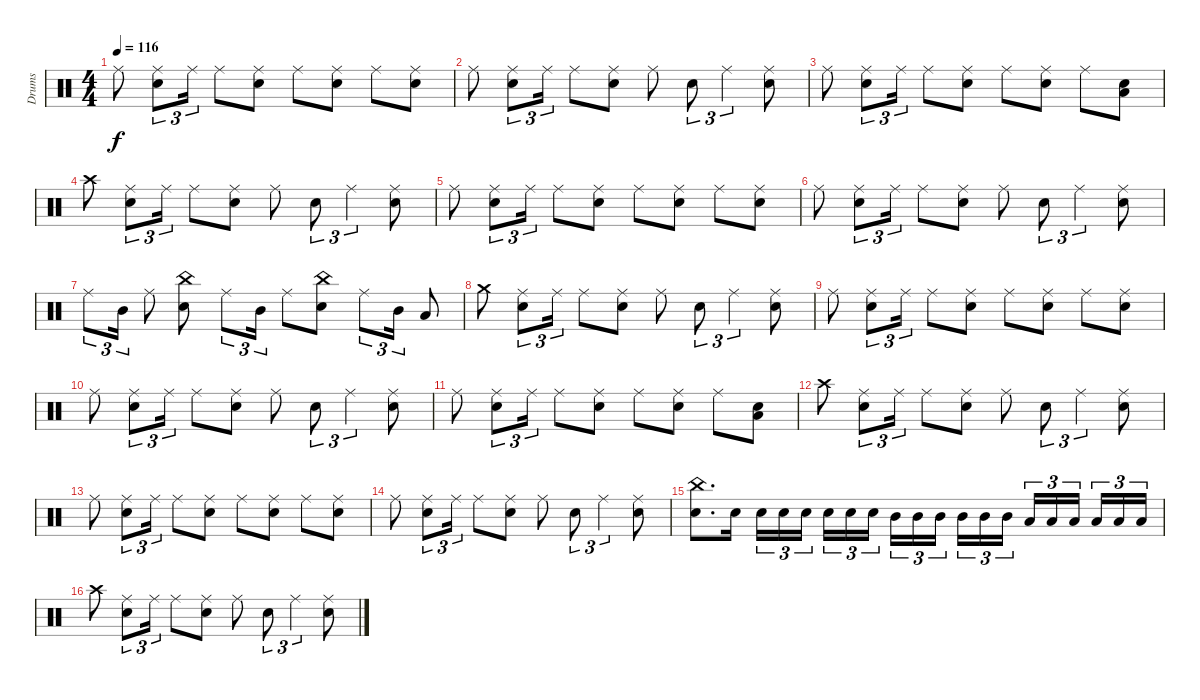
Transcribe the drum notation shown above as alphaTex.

\track ("Drums" "Drums") {instrument percussion}
\staff {score}
\articulation defaults
\ts (4 4)
\tempo 116
\clef neutral
\ks c "Ride (middle)".8{dy f}
("Ride (middle)" "Snare (hit) 2").8{tu (3 2)} "Ride (middle)".16{tu (3 2)} "Ride (middle)".8 ("Ride (middle)" "Snare (hit) 2").8 "Ride (middle)".8 ("Ride (middle)" "Snare (hit) 2").8 "Ride (middle)".8 ("Ride (middle)" "Snare (hit) 2").8 |
"Ride (middle)".8 ("Ride (middle)" "Snare (hit) 2").8{tu (3 2)} "Ride (middle)".16{tu (3 2)} "Ride (middle)".8 ("Ride (middle)" "Snare (hit) 2").8 "Ride (middle)".8 "Snare (hit) 2".8{tu (3 2)} "Ride (middle)".4{tu (3 2)} ("Ride (middle)" "Snare (hit) 2").8 |
"Ride (middle)".8 ("Ride (middle)" "Snare (hit) 2").8{tu (3 2)} "Ride (middle)".16{tu (3 2)} "Ride (middle)".8 ("Ride (middle)" "Snare (hit) 2").8 "Ride (middle)".8 ("Ride (middle)" "Snare (hit) 2").8 "Ride (middle)".8 ("Low Tom (hit)" "Snare (hit) 2").8 |
"Crash high (hit)".8 ("Ride (middle)" "Snare (hit) 2").8{tu (3 2)} "Ride (middle)".16{tu (3 2)} "Ride (middle)".8 ("Ride (middle)" "Snare (hit) 2").8 "Ride (middle)".8 "Snare (hit) 2".8{tu (3 2)} "Ride (middle)".4{tu (3 2)} ("Ride (middle)" "Snare (hit) 2").8 |
"Ride (middle)".8 ("Ride (middle)" "Snare (hit) 2").8{tu (3 2)} "Ride (middle)".16{tu (3 2)} "Ride (middle)".8 ("Ride (middle)" "Snare (hit) 2").8 "Ride (middle)".8 ("Ride (middle)" "Snare (hit) 2").8 "Ride (middle)".8 ("Ride (middle)" "Snare (hit) 2").8 |
"Ride (middle)".8 ("Ride (middle)" "Snare (hit) 2").8{tu (3 2)} "Ride (middle)".16{tu (3 2)} "Ride (middle)".8 ("Ride (middle)" "Snare (hit) 2").8 "Ride (middle)".8 "Snare (hit) 2".8{tu (3 2)} "Ride (middle)".4{tu (3 2)} ("Ride (middle)" "Snare (hit) 2").8 |
"Ride (middle)".8{tu (3 2)} "Mid Tom (hit)".16{tu (3 2)} "Ride (middle)".8 ("China (hit)" "Snare (hit) 2").8 "Ride (middle)".8{tu (3 2)} "Mid Tom (hit)".16{tu (3 2)} "Ride (middle)".8 ("China (hit)" "Snare (hit) 2").8 "Ride (middle)".8{tu (3 2)} "Mid Tom (hit)".16{tu (3 2)} "Low Tom (hit)".8 |
"Crash medium (hit)".8 ("Ride (middle)" "Snare (hit) 2").8{tu (3 2)} "Ride (middle)".16{tu (3 2)} "Ride (middle)".8 ("Ride (middle)" "Snare (hit) 2").8 "Ride (middle)".8 "Snare (hit) 2".8{tu (3 2)} "Ride (middle)".4{tu (3 2)} ("Ride (middle)" "Snare (hit) 2").8 |
"Ride (middle)".8 ("Ride (middle)" "Snare (hit) 2").8{tu (3 2)} "Ride (middle)".16{tu (3 2)} "Ride (middle)".8 ("Ride (middle)" "Snare (hit) 2").8 "Ride (middle)".8 ("Ride (middle)" "Snare (hit) 2").8 "Ride (middle)".8 ("Ride (middle)" "Snare (hit) 2").8 |
"Ride (middle)".8 ("Ride (middle)" "Snare (hit) 2").8{tu (3 2)} "Ride (middle)".16{tu (3 2)} "Ride (middle)".8 ("Ride (middle)" "Snare (hit) 2").8 "Ride (middle)".8 "Snare (hit) 2".8{tu (3 2)} "Ride (middle)".4{tu (3 2)} ("Ride (middle)" "Snare (hit) 2").8 |
"Ride (middle)".8 ("Ride (middle)" "Snare (hit) 2").8{tu (3 2)} "Ride (middle)".16{tu (3 2)} "Ride (middle)".8 ("Ride (middle)" "Snare (hit) 2").8 "Ride (middle)".8 ("Ride (middle)" "Snare (hit) 2").8 "Ride (middle)".8 ("Low Tom (hit)" "Snare (hit) 2").8 |
"Crash high (hit)".8 ("Ride (middle)" "Snare (hit) 2").8{tu (3 2)} "Ride (middle)".16{tu (3 2)} "Ride (middle)".8 ("Ride (middle)" "Snare (hit) 2").8 "Ride (middle)".8 "Snare (hit) 2".8{tu (3 2)} "Ride (middle)".4{tu (3 2)} ("Ride (middle)" "Snare (hit) 2").8 |
"Ride (middle)".8 ("Ride (middle)" "Snare (hit) 2").8{tu (3 2)} "Ride (middle)".16{tu (3 2)} "Ride (middle)".8 ("Ride (middle)" "Snare (hit) 2").8 "Ride (middle)".8 ("Ride (middle)" "Snare (hit) 2").8 "Ride (middle)".8 ("Ride (middle)" "Snare (hit) 2").8 |
"Ride (middle)".8 ("Ride (middle)" "Snare (hit) 2").8{tu (3 2)} "Ride (middle)".16{tu (3 2)} "Ride (middle)".8 ("Ride (middle)" "Snare (hit) 2").8 "Ride (middle)".8 "Snare (hit) 2".8{tu (3 2)} "Ride (middle)".4{tu (3 2)} ("Ride (middle)" "Snare (hit) 2").8 |
("China (hit)" "Snare (hit) 2").8{d} "Snare (hit) 2".16 "Snare (hit) 2".16{tu (3 2)} "Snare (hit) 2".16{tu (3 2)} "Snare (hit) 2".16{tu (3 2)} "Snare (hit) 2".16{tu (3 2)} "Snare (hit) 2".16{tu (3 2)} "Snare (hit) 2".16{tu (3 2)} "Mid Tom (hit)".16{tu (3 2)} "Mid Tom (hit)".16{tu (3 2)} "Mid Tom (hit)".16{tu (3 2)} "Mid Tom (hit)".16{tu (3 2)} "Mid Tom (hit)".16{tu (3 2)} "Mid Tom (hit)".16{tu (3 2)} "Low Tom (hit)".16{tu (3 2)} "Low Tom (hit)".16{tu (3 2)} "Low Tom (hit)".16{tu (3 2)} "Low Tom (hit)".16{tu (3 2)} "Low Tom (hit)".16{tu (3 2)} "Low Tom (hit)".16{tu (3 2)} |
"Crash high (hit)".8 ("Ride (middle)" "Snare (hit) 2").8{tu (3 2)} "Ride (middle)".16{tu (3 2)} "Ride (middle)".8 ("Ride (middle)" "Snare (hit) 2").8 "Ride (middle)".8 "Snare (hit) 2".8{tu (3 2)} "Ride (middle)".4{tu (3 2)} ("Ride (middle)" "Snare (hit) 2").8
